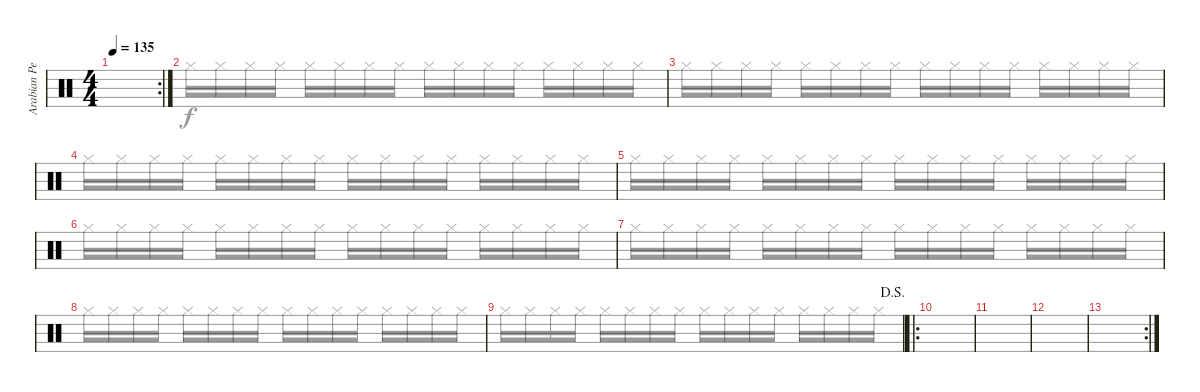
\track ("Arabian Perc" "Arabian Pe") {instrument percussion}
\staff {score}
\articulation defaults
\voice
\rc 2
\ts (4 4)
\tempo 135
\clef neutral
\ks c
|
|
|
|
|
|
|
|
\jump dalsegno
|
\ro
|
|
|
\rc 2
|
|
|
\voice
\clef neutral
\ks c
|
"Hi-Hat (closed)".16 "Hi-Hat (closed)".16 "Hi-Hat (closed)".16 "Hi-Hat (closed)".16 "Hi-Hat (closed)".16 "Hi-Hat (closed)".16 "Hi-Hat (closed)".16 "Hi-Hat (closed)".16 "Hi-Hat (closed)".16 "Hi-Hat (closed)".16 "Hi-Hat (closed)".16 "Hi-Hat (closed)".16 "Hi-Hat (closed)".16 "Hi-Hat (closed)".16 "Hi-Hat (closed)".16 "Hi-Hat (closed)".16 |
"Hi-Hat (closed)".16 "Hi-Hat (closed)".16 "Hi-Hat (closed)".16 "Hi-Hat (closed)".16 "Hi-Hat (closed)".16 "Hi-Hat (closed)".16 "Hi-Hat (closed)".16 "Hi-Hat (closed)".16 "Hi-Hat (closed)".16 "Hi-Hat (closed)".16 "Hi-Hat (closed)".16 "Hi-Hat (closed)".16 "Hi-Hat (closed)".16 "Hi-Hat (closed)".16 "Hi-Hat (closed)".16 "Hi-Hat (closed)".16 |
"Hi-Hat (closed)".16 "Hi-Hat (closed)".16 "Hi-Hat (closed)".16 "Hi-Hat (closed)".16 "Hi-Hat (closed)".16 "Hi-Hat (closed)".16 "Hi-Hat (closed)".16 "Hi-Hat (closed)".16 "Hi-Hat (closed)".16 "Hi-Hat (closed)".16 "Hi-Hat (closed)".16 "Hi-Hat (closed)".16 "Hi-Hat (closed)".16 "Hi-Hat (closed)".16 "Hi-Hat (closed)".16 "Hi-Hat (closed)".16 |
"Hi-Hat (closed)".16 "Hi-Hat (closed)".16 "Hi-Hat (closed)".16 "Hi-Hat (closed)".16 "Hi-Hat (closed)".16 "Hi-Hat (closed)".16 "Hi-Hat (closed)".16 "Hi-Hat (closed)".16 "Hi-Hat (closed)".16 "Hi-Hat (closed)".16 "Hi-Hat (closed)".16 "Hi-Hat (closed)".16 "Hi-Hat (closed)".16 "Hi-Hat (closed)".16 "Hi-Hat (closed)".16 "Hi-Hat (closed)".16 |
"Hi-Hat (closed)".16 "Hi-Hat (closed)".16 "Hi-Hat (closed)".16 "Hi-Hat (closed)".16 "Hi-Hat (closed)".16 "Hi-Hat (closed)".16 "Hi-Hat (closed)".16 "Hi-Hat (closed)".16 "Hi-Hat (closed)".16 "Hi-Hat (closed)".16 "Hi-Hat (closed)".16 "Hi-Hat (closed)".16 "Hi-Hat (closed)".16 "Hi-Hat (closed)".16 "Hi-Hat (closed)".16 "Hi-Hat (closed)".16 |
"Hi-Hat (closed)".16 "Hi-Hat (closed)".16 "Hi-Hat (closed)".16 "Hi-Hat (closed)".16 "Hi-Hat (closed)".16 "Hi-Hat (closed)".16 "Hi-Hat (closed)".16 "Hi-Hat (closed)".16 "Hi-Hat (closed)".16 "Hi-Hat (closed)".16 "Hi-Hat (closed)".16 "Hi-Hat (closed)".16 "Hi-Hat (closed)".16 "Hi-Hat (closed)".16 "Hi-Hat (closed)".16 "Hi-Hat (closed)".16 |
"Hi-Hat (closed)".16 "Hi-Hat (closed)".16 "Hi-Hat (closed)".16 "Hi-Hat (closed)".16 "Hi-Hat (closed)".16 "Hi-Hat (closed)".16 "Hi-Hat (closed)".16 "Hi-Hat (closed)".16 "Hi-Hat (closed)".16 "Hi-Hat (closed)".16 "Hi-Hat (closed)".16 "Hi-Hat (closed)".16 "Hi-Hat (closed)".16 "Hi-Hat (closed)".16 "Hi-Hat (closed)".16 "Hi-Hat (closed)".16 |
"Hi-Hat (closed)".16 "Hi-Hat (closed)".16 "Hi-Hat (closed)".16 "Hi-Hat (closed)".16 "Hi-Hat (closed)".16 "Hi-Hat (closed)".16 "Hi-Hat (closed)".16 "Hi-Hat (closed)".16 "Hi-Hat (closed)".16 "Hi-Hat (closed)".16 "Hi-Hat (closed)".16 "Hi-Hat (closed)".16 "Hi-Hat (closed)".16 "Hi-Hat (closed)".16 "Hi-Hat (closed)".16 "Hi-Hat (closed)".16 |
|
|
|
|
|
|
